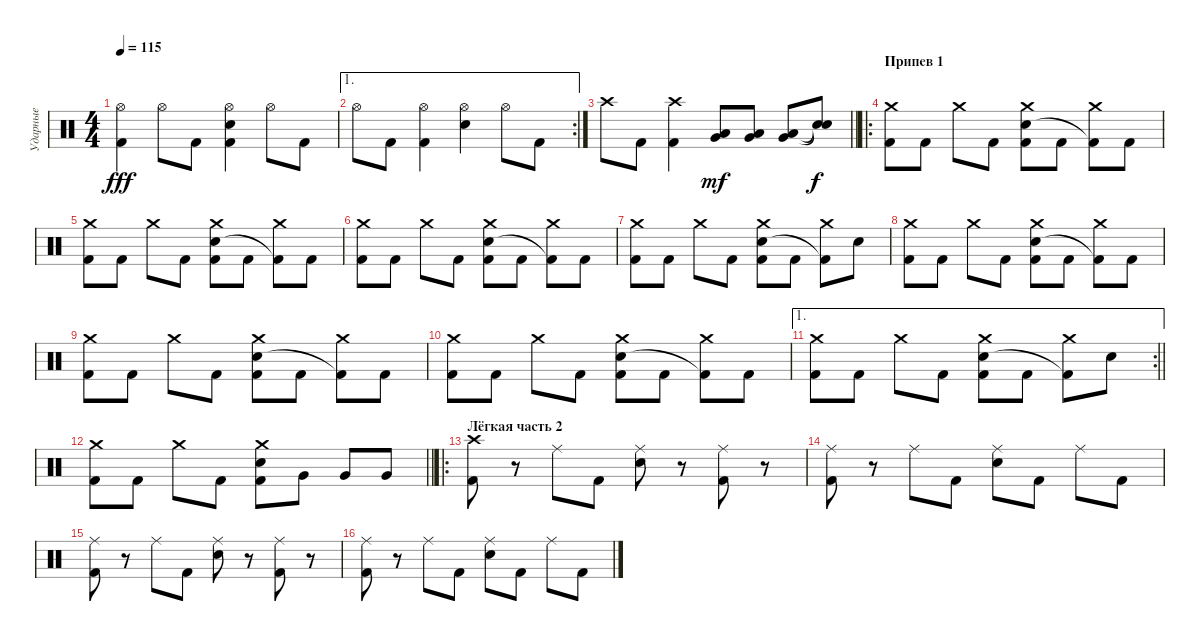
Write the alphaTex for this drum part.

\track ("Ударные" "Ударные") {instrument percussion}
\staff {score}
\articulation defaults
\ts (4 4)
\tempo 115
\clef neutral
\ks c
("Hi-Hat (open)" "Kick (hit) 2").4{dy fff} "Hi-Hat (open)".8 "Kick (hit) 2".8 ("Hi-Hat (open)" "Snare (hit) 2" "Kick (hit) 2").4 "Hi-Hat (open)".8 "Kick (hit) 2".8 |
\ae 1
\rc 2 "Hi-Hat (open)".8 "Kick (hit) 2".8
("Hi-Hat (open)" "Kick (hit) 2").4 ("Hi-Hat (open)" "Snare (hit) 2").4 "Hi-Hat (open)".8 "Kick (hit) 2".8 |
\barLineRight lightlight "Crash high (hit)".8 "Kick (hit) 2".8
("Crash high (hit)" "Kick (hit) 2").4 ("Low Tom (hit)" "Very Low Tom (hit)").8{dy mf} ("Low Tom (hit)" "Very Low Tom (hit)").8 ("Low Tom (hit)" "Very Low Tom (hit)").8 ("Snare (hit)"{t} "Snare (hit)"{t}).8{dy f} |
\ro
\section ("" "Припев 1")
("Crash medium (hit)" "Kick (hit) 2").8 "Kick (hit) 2".8 "Crash medium (hit)".8 "Kick (hit) 2".8 ("Crash medium (hit)" "Snare (hit) 2" "Kick (hit) 2").8 "Kick (hit) 2".8 ("Crash medium (hit)" "Kick (hit) 2"{t}).8 "Kick (hit) 2".8 |
("Crash medium (hit)" "Kick (hit) 2").8 "Kick (hit) 2".8 "Crash medium (hit)".8 "Kick (hit) 2".8 ("Crash medium (hit)" "Snare (hit) 2" "Kick (hit) 2").8 "Kick (hit) 2".8 ("Crash medium (hit)" "Kick (hit) 2"{t}).8 "Kick (hit) 2".8 |
("Crash medium (hit)" "Kick (hit) 2").8 "Kick (hit) 2".8 "Crash medium (hit)".8 "Kick (hit) 2".8 ("Crash medium (hit)" "Snare (hit) 2" "Kick (hit) 2").8 "Kick (hit) 2".8 ("Crash medium (hit)" "Kick (hit) 2"{t}).8 "Kick (hit) 2".8 |
("Crash medium (hit)" "Kick (hit) 2").8 "Kick (hit) 2".8 "Crash medium (hit)".8 "Kick (hit) 2".8 ("Crash medium (hit)" "Snare (hit) 2" "Kick (hit) 2").8 "Kick (hit) 2".8 ("Crash medium (hit)" "Kick (hit) 2"{t}).8 "Snare (hit) 2".8 |
("Crash medium (hit)" "Kick (hit) 2").8 "Kick (hit) 2".8 "Crash medium (hit)".8 "Kick (hit) 2".8 ("Crash medium (hit)" "Snare (hit) 2" "Kick (hit) 2").8 "Kick (hit) 2".8 ("Crash medium (hit)" "Kick (hit) 2"{t}).8 "Kick (hit) 2".8 |
("Crash medium (hit)" "Kick (hit) 2").8 "Kick (hit) 2".8 "Crash medium (hit)".8 "Kick (hit) 2".8 ("Crash medium (hit)" "Snare (hit) 2" "Kick (hit) 2").8 "Kick (hit) 2".8 ("Crash medium (hit)" "Kick (hit) 2"{t}).8 "Kick (hit) 2".8 |
("Crash medium (hit)" "Kick (hit) 2").8 "Kick (hit) 2".8 "Crash medium (hit)".8 "Kick (hit) 2".8 ("Crash medium (hit)" "Snare (hit) 2" "Kick (hit) 2").8 "Kick (hit) 2".8 ("Crash medium (hit)" "Kick (hit) 2"{t}).8 "Kick (hit) 2".8 |
\ae 1
\rc 2
\barLineRight lightlight
("Crash medium (hit)" "Kick (hit) 2").8 "Kick (hit) 2".8 "Crash medium (hit)".8 "Kick (hit) 2".8 ("Crash medium (hit)" "Snare (hit) 2" "Kick (hit) 2").8 "Kick (hit) 2".8 ("Crash medium (hit)" "Kick (hit) 2"{t}).8 "Snare (hit) 2".8 |
\barLineRight lightlight
("Crash medium (hit)" "Kick (hit) 2").8 "Kick (hit) 2".8 "Crash medium (hit)".8 "Kick (hit) 2".8 ("Crash medium (hit)" "Snare (hit) 2" "Kick (hit) 2").8 "Very Low Tom (hit)".8 "Very Low Tom (hit)".8 "Very Low Tom (hit)".8 |
\ro
\section ("" "Лёгкая часть 2")
("Crash high (hit)" "Kick (hit) 2").8 r.8 "Ride (middle)".8 "Kick (hit) 2".8 ("Snare (hit) 2" "Ride (middle)").8 r.8 ("Ride (middle)" "Kick (hit) 2").8 r.8 |
("Ride (middle)" "Kick (hit) 2").8 r.8 "Ride (middle)".8 "Kick (hit) 2".8 ("Snare (hit) 2" "Ride (middle)").8 "Kick (hit) 2".8 "Ride (middle)".8 "Kick (hit) 2".8 |
("Ride (middle)" "Kick (hit) 2").8 r.8 "Ride (middle)".8 "Kick (hit) 2".8 ("Snare (hit) 2" "Ride (middle)").8 r.8 ("Ride (middle)" "Kick (hit) 2").8 r.8 |
("Ride (middle)" "Kick (hit) 2").8 r.8 "Ride (middle)".8 "Kick (hit) 2".8 ("Snare (hit) 2" "Ride (middle)").8 "Kick (hit) 2".8 "Ride (middle)".8 "Kick (hit) 2".8
